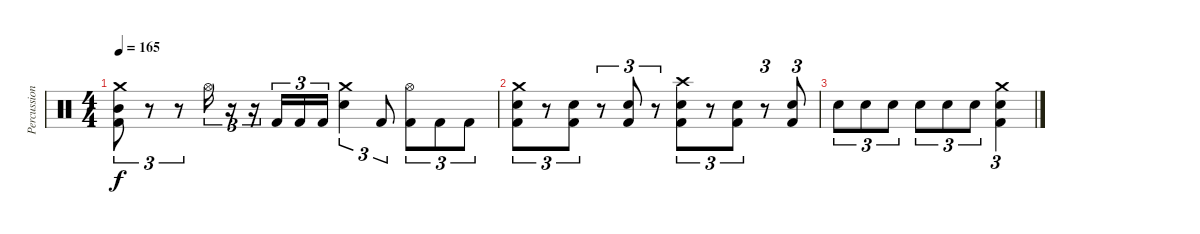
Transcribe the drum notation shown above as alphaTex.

\track ("Percussion" "Percussion") {instrument percussion}
\staff {score}
\articulation defaults
\ts (4 4)
\tempo 165
\clef neutral
\ks c
("Crash medium (hit)" "Mid Tom (hit)" "Kick (hit) 2").8{tu (3 2) dy f} r.8{tu (3 2)} r.8{tu (3 2)} "Hi-Hat (open)".16{tu (3 2)} r.16{tu (3 2)} r.16{tu (3 2)} "Kick (hit) 2".16{tu (3 2)} "Kick (hit) 2".16{tu (3 2)} "Kick (hit) 2".16{tu (3 2)} ("Crash medium (hit)" "Snare (hit) 2").4{tu (3 2)} "Kick (hit) 2".8{tu (3 2)} ("Hi-Hat (open)" "Kick (hit) 2").8{tu (3 2)} "Kick (hit) 2".8{tu (3 2)} "Kick (hit) 2".8{tu (3 2)} |
("Crash medium (hit)" "Snare (hit) 2" "Kick (hit) 2").8{tu (3 2)} r.8{tu (3 2)} ("Snare (hit) 2" "Kick (hit) 2").8{tu (3 2)} r.8{tu (3 2)} ("Snare (hit) 2" "Kick (hit) 2").8{tu (3 2)} r.8{tu (3 2)} ("Crash high (hit)" "Snare (hit) 2" "Kick (hit) 2").8{tu (3 2)} r.8{tu (3 2)} ("Snare (hit) 2" "Kick (hit) 2").8{tu (3 2)} r.8{tu (3 2)} ("Snare (hit) 2" "Kick (hit) 2").8{tu (3 2)} |
"Snare (hit) 2".8{tu (3 2)} "Snare (hit) 2".8{tu (3 2)} "Snare (hit) 2".8{tu (3 2)} "Snare (hit) 2".8{tu (3 2)} "Snare (hit) 2".8{tu (3 2)} "Snare (hit) 2".8{tu (3 2)} ("Crash medium (hit)" "Snare (hit) 2" "Kick (hit) 2").4{tu (3 2)}
